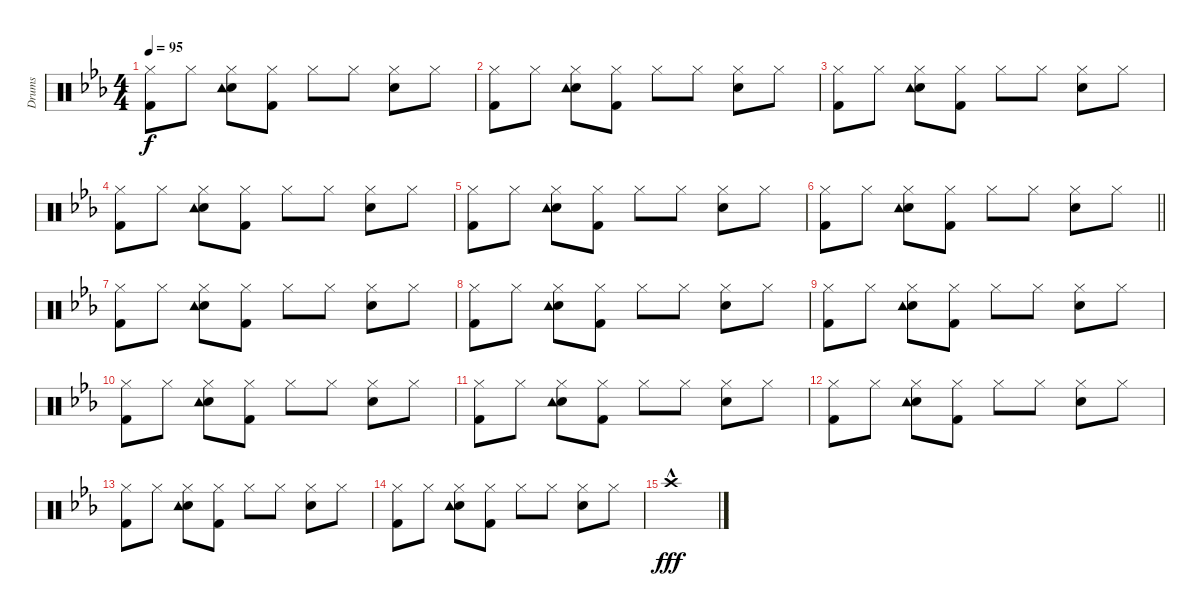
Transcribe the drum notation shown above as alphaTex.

\track ("Drums" "Drums") {instrument percussion}
\staff {score}
\articulation defaults
\ts (4 4)
\tempo 95
\clef neutral
\ks eb
("Hi-Hat (closed)" "Kick (hit) 2").8{dy f} "Hi-Hat (closed)".8 ("Hi-Hat (closed)" "Snare (hit) 2" "Tambourine (hit)").8 ("Hi-Hat (closed)" "Kick (hit) 2").8 "Hi-Hat (closed)".8 "Hi-Hat (closed)".8 ("Hi-Hat (closed)" "Snare (hit) 2").8 "Hi-Hat (closed)".8 |
("Hi-Hat (closed)" "Kick (hit) 2").8 "Hi-Hat (closed)".8 ("Hi-Hat (closed)" "Snare (hit) 2" "Tambourine (hit)").8 ("Hi-Hat (closed)" "Kick (hit) 2").8 "Hi-Hat (closed)".8 "Hi-Hat (closed)".8 ("Hi-Hat (closed)" "Snare (hit) 2").8 "Hi-Hat (closed)".8 |
("Hi-Hat (closed)" "Kick (hit) 2").8 "Hi-Hat (closed)".8 ("Hi-Hat (closed)" "Snare (hit) 2" "Tambourine (hit)").8 ("Hi-Hat (closed)" "Kick (hit) 2").8 "Hi-Hat (closed)".8 "Hi-Hat (closed)".8 ("Hi-Hat (closed)" "Snare (hit) 2").8 "Hi-Hat (closed)".8 |
("Hi-Hat (closed)" "Kick (hit) 2").8 "Hi-Hat (closed)".8 ("Hi-Hat (closed)" "Snare (hit) 2" "Tambourine (hit)").8 ("Hi-Hat (closed)" "Kick (hit) 2").8 "Hi-Hat (closed)".8 "Hi-Hat (closed)".8 ("Hi-Hat (closed)" "Snare (hit) 2").8 "Hi-Hat (closed)".8 |
("Hi-Hat (closed)" "Kick (hit) 2").8 "Hi-Hat (closed)".8 ("Hi-Hat (closed)" "Snare (hit) 2" "Tambourine (hit)").8 ("Hi-Hat (closed)" "Kick (hit) 2").8 "Hi-Hat (closed)".8 "Hi-Hat (closed)".8 ("Hi-Hat (closed)" "Snare (hit) 2").8 "Hi-Hat (closed)".8 |
\barLineRight lightlight
("Hi-Hat (closed)" "Kick (hit) 2").8 "Hi-Hat (closed)".8 ("Hi-Hat (closed)" "Snare (hit) 2" "Tambourine (hit)").8 ("Hi-Hat (closed)" "Kick (hit) 2").8 "Hi-Hat (closed)".8 "Hi-Hat (closed)".8 ("Hi-Hat (closed)" "Snare (hit) 2").8 "Hi-Hat (closed)".8 |
\section ("" "")
("Hi-Hat (closed)" "Kick (hit) 2").8 "Hi-Hat (closed)".8 ("Hi-Hat (closed)" "Snare (hit) 2" "Tambourine (hit)").8 ("Hi-Hat (closed)" "Kick (hit) 2").8 "Hi-Hat (closed)".8 "Hi-Hat (closed)".8 ("Hi-Hat (closed)" "Snare (hit) 2").8 "Hi-Hat (closed)".8 |
("Hi-Hat (closed)" "Kick (hit) 2").8 "Hi-Hat (closed)".8 ("Hi-Hat (closed)" "Snare (hit) 2" "Tambourine (hit)").8 ("Hi-Hat (closed)" "Kick (hit) 2").8 "Hi-Hat (closed)".8 "Hi-Hat (closed)".8 ("Hi-Hat (closed)" "Snare (hit) 2").8 "Hi-Hat (closed)".8 |
("Hi-Hat (closed)" "Kick (hit) 2").8 "Hi-Hat (closed)".8 ("Hi-Hat (closed)" "Snare (hit) 2" "Tambourine (hit)").8 ("Hi-Hat (closed)" "Kick (hit) 2").8 "Hi-Hat (closed)".8 "Hi-Hat (closed)".8 ("Hi-Hat (closed)" "Snare (hit) 2").8 "Hi-Hat (closed)".8 |
("Hi-Hat (closed)" "Kick (hit) 2").8 "Hi-Hat (closed)".8 ("Hi-Hat (closed)" "Snare (hit) 2" "Tambourine (hit)").8 ("Hi-Hat (closed)" "Kick (hit) 2").8 "Hi-Hat (closed)".8 "Hi-Hat (closed)".8 ("Hi-Hat (closed)" "Snare (hit) 2").8 "Hi-Hat (closed)".8 |
("Hi-Hat (closed)" "Kick (hit) 2").8 "Hi-Hat (closed)".8 ("Hi-Hat (closed)" "Snare (hit) 2" "Tambourine (hit)").8 ("Hi-Hat (closed)" "Kick (hit) 2").8 "Hi-Hat (closed)".8 "Hi-Hat (closed)".8 ("Hi-Hat (closed)" "Snare (hit) 2").8 "Hi-Hat (closed)".8 |
("Hi-Hat (closed)" "Kick (hit) 2").8 "Hi-Hat (closed)".8 ("Hi-Hat (closed)" "Snare (hit) 2" "Tambourine (hit)").8 ("Hi-Hat (closed)" "Kick (hit) 2").8 "Hi-Hat (closed)".8 "Hi-Hat (closed)".8 ("Hi-Hat (closed)" "Snare (hit) 2").8 "Hi-Hat (closed)".8 |
("Hi-Hat (closed)" "Kick (hit) 2").8 "Hi-Hat (closed)".8 ("Hi-Hat (closed)" "Snare (hit) 2" "Tambourine (hit)").8 ("Hi-Hat (closed)" "Kick (hit) 2").8 "Hi-Hat (closed)".8 "Hi-Hat (closed)".8 ("Hi-Hat (closed)" "Snare (hit) 2").8 "Hi-Hat (closed)".8 |
("Hi-Hat (closed)" "Kick (hit) 2").8 "Hi-Hat (closed)".8 ("Hi-Hat (closed)" "Snare (hit) 2" "Tambourine (hit)").8 ("Hi-Hat (closed)" "Kick (hit) 2").8 "Hi-Hat (closed)".8 "Hi-Hat (closed)".8 ("Hi-Hat (closed)" "Snare (hit) 2").8 "Hi-Hat (closed)".8 |
"Crash high (hit)"{hac}.1{dy fff}
